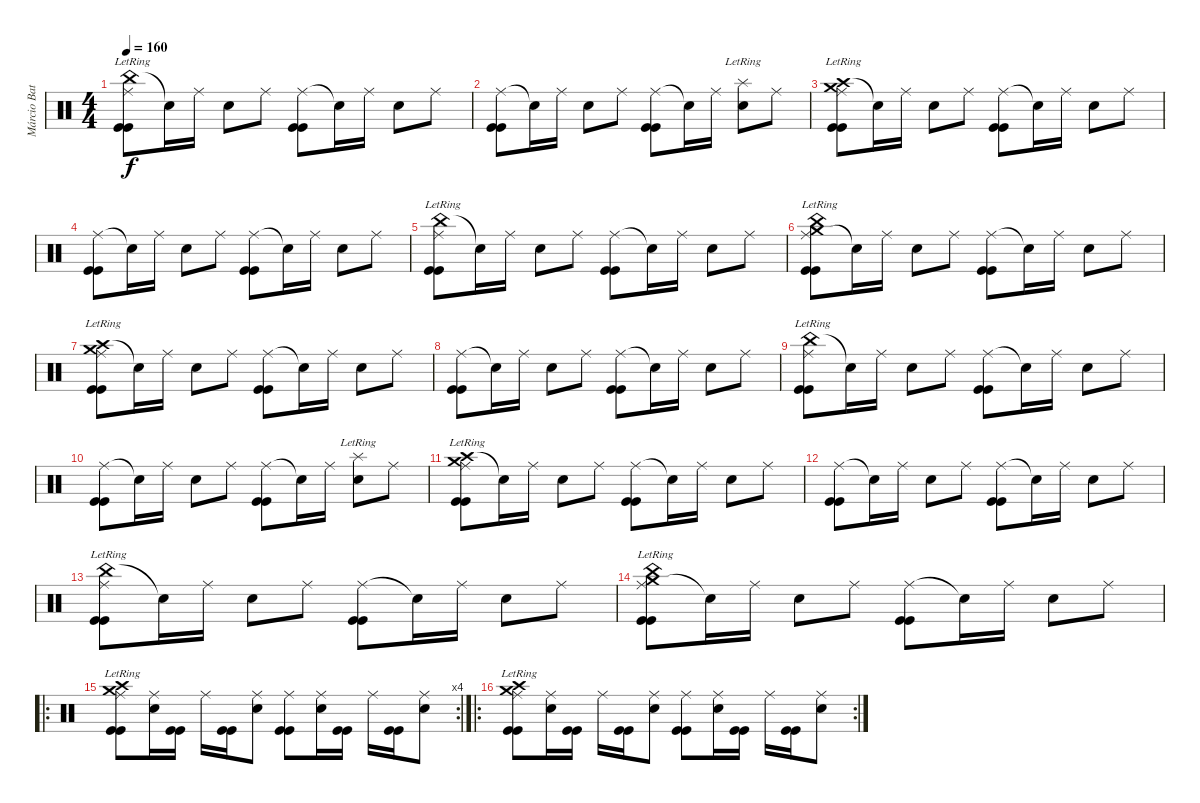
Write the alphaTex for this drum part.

\track ("Márcio Batista" "Márcio Bat") {instrument percussion}
\staff {score}
\articulation defaults
\ts (4 4)
\tempo 160
\clef neutral
\ks c
("China (hit)"{lr} "Ride (middle)" "Kick (hit)" "Kick (hit)").8{dy f} "Snare (hit)"{t}.16 "Ride (middle)".16 "Snare (hit) 2".8 "Ride (middle)".8 ("Ride (middle)" "Kick (hit)" "Kick (hit)").8 "Snare (hit)"{t}.16 "Ride (middle)".16 "Snare (hit) 2".8 "Ride (middle)".8 |
("Ride (middle)" "Kick (hit)" "Kick (hit)").8 "Snare (hit)"{t}.16 "Ride (middle)".16 "Snare (hit) 2".8 "Ride (middle)".8 ("Ride (middle)" "Kick (hit)" "Kick (hit)").8 "Snare (hit)"{t}.16 "Ride (middle)".16 ("Splash (hit)"{lr} "Snare (hit) 2").8 "Ride (middle)".8 |
("Crash high (hit)"{lr} "Crash medium (hit)"{lr} "Ride (middle)" "Kick (hit)" "Kick (hit)").8 "Snare (hit)"{t}.16 "Ride (middle)".16 "Snare (hit) 2".8 "Ride (middle)".8 ("Ride (middle)" "Kick (hit)" "Kick (hit)").8 "Snare (hit)"{t}.16 "Ride (middle)".16 "Snare (hit) 2".8 "Ride (middle)".8 |
("Ride (middle)" "Kick (hit)" "Kick (hit)").8 "Snare (hit)"{t}.16 "Ride (middle)".16 "Snare (hit) 2".8 "Ride (middle)".8 ("Ride (middle)" "Kick (hit)" "Kick (hit)").8 "Snare (hit)"{t}.16 "Ride (middle)".16 "Snare (hit) 2".8 "Ride (middle)".8 |
("China (hit)"{lr} "Ride (middle)" "Kick (hit)" "Kick (hit)").8 "Snare (hit)"{t}.16 "Ride (middle)".16 "Snare (hit) 2".8 "Ride (middle)".8 ("Ride (middle)" "Kick (hit)" "Kick (hit)").8 "Snare (hit)"{t}.16 "Ride (middle)".16 "Snare (hit) 2".8 "Ride (middle)".8 |
("Crash medium (hit)"{lr} "China (hit)"{lr} "Ride (middle)" "Kick (hit)" "Kick (hit)").8 "Snare (hit)"{t}.16 "Ride (middle)".16 "Snare (hit) 2".8 "Ride (middle)".8 ("Ride (middle)" "Kick (hit)" "Kick (hit)").8 "Snare (hit)"{t}.16 "Ride (middle)".16 "Snare (hit) 2".8 "Ride (middle)".8 |
("Crash high (hit)"{lr} "Crash medium (hit)"{lr} "Ride (middle)" "Kick (hit)" "Kick (hit)").8 "Snare (hit)"{t}.16 "Ride (middle)".16 "Snare (hit) 2".8 "Ride (middle)".8 ("Ride (middle)" "Kick (hit)" "Kick (hit)").8 "Snare (hit)"{t}.16 "Ride (middle)".16 "Snare (hit) 2".8 "Ride (middle)".8 |
("Ride (middle)" "Kick (hit)" "Kick (hit)").8 "Snare (hit)"{t}.16 "Ride (middle)".16 "Snare (hit) 2".8 "Ride (middle)".8 ("Ride (middle)" "Kick (hit)" "Kick (hit)").8 "Snare (hit)"{t}.16 "Ride (middle)".16 "Snare (hit) 2".8 "Ride (middle)".8 |
("China (hit)"{lr} "Ride (middle)" "Kick (hit)" "Kick (hit)").8 "Snare (hit)"{t}.16 "Ride (middle)".16 "Snare (hit) 2".8 "Ride (middle)".8 ("Ride (middle)" "Kick (hit)" "Kick (hit)").8 "Snare (hit)"{t}.16 "Ride (middle)".16 "Snare (hit) 2".8 "Ride (middle)".8 |
("Ride (middle)" "Kick (hit)" "Kick (hit)").8 "Snare (hit)"{t}.16 "Ride (middle)".16 "Snare (hit) 2".8 "Ride (middle)".8 ("Ride (middle)" "Kick (hit)" "Kick (hit)").8 "Snare (hit)"{t}.16 "Ride (middle)".16 ("Splash (hit)"{lr} "Snare (hit) 2").8 "Ride (middle)".8 |
("Crash high (hit)"{lr} "Crash medium (hit)"{lr} "Ride (middle)" "Kick (hit)" "Kick (hit)").8 "Snare (hit)"{t}.16 "Ride (middle)".16 "Snare (hit) 2".8 "Ride (middle)".8 ("Ride (middle)" "Kick (hit)" "Kick (hit)").8 "Snare (hit)"{t}.16 "Ride (middle)".16 "Snare (hit) 2".8 "Ride (middle)".8 |
("Ride (middle)" "Kick (hit)" "Kick (hit)").8 "Snare (hit)"{t}.16 "Ride (middle)".16 "Snare (hit) 2".8 "Ride (middle)".8 ("Ride (middle)" "Kick (hit)" "Kick (hit)").8 "Snare (hit)"{t}.16 "Ride (middle)".16 "Snare (hit) 2".8 "Ride (middle)".8 |
("China (hit)"{lr} "Ride (middle)" "Kick (hit)" "Kick (hit)").8 "Snare (hit)"{t}.16 "Ride (middle)".16 "Snare (hit) 2".8 "Ride (middle)".8 ("Ride (middle)" "Kick (hit)" "Kick (hit)").8 "Snare (hit)"{t}.16 "Ride (middle)".16 "Snare (hit) 2".8 "Ride (middle)".8 |
("Crash medium (hit)"{lr} "China (hit)"{lr} "Ride (middle)" "Kick (hit)" "Kick (hit)").8 "Snare (hit)"{t}.16 "Ride (middle)".16 "Snare (hit) 2".8 "Ride (middle)".8 ("Ride (middle)" "Kick (hit)" "Kick (hit)").8 "Snare (hit)"{t}.16 "Ride (middle)".16 "Snare (hit) 2".8 "Ride (middle)".8 |
\ro
\rc 4
("Crash high (hit)"{lr} "Crash medium (hit)"{lr} "Ride (middle)" "Kick (hit)" "Kick (hit)").8 ("Snare (hit) 2" "Ride (middle)").16 ("Kick (hit)" "Kick (hit)").16 "Ride (middle)".16 ("Kick (hit)" "Kick (hit)").16 ("Snare (hit) 2" "Ride (middle)").8 ("Ride (middle)" "Kick (hit)" "Kick (hit)").8 ("Snare (hit) 2" "Ride (middle)").16 ("Kick (hit)" "Kick (hit)").16 "Ride (middle)".16 ("Kick (hit)" "Kick (hit)").16 ("Snare (hit) 2" "Ride (middle)").8 |
\ro
\rc 2
("Crash high (hit)"{lr} "Crash medium (hit)"{lr} "Ride (middle)" "Kick (hit)" "Kick (hit)").8 ("Snare (hit) 2" "Ride (middle)").16 ("Kick (hit)" "Kick (hit)").16 "Ride (middle)".16 ("Kick (hit)" "Kick (hit)").16 ("Snare (hit) 2" "Ride (middle)").8 ("Ride (middle)" "Kick (hit)" "Kick (hit)").8 ("Snare (hit) 2" "Ride (middle)").16 ("Kick (hit)" "Kick (hit)").16 "Ride (middle)".16 ("Kick (hit)" "Kick (hit)").16 ("Snare (hit) 2" "Ride (middle)").8
